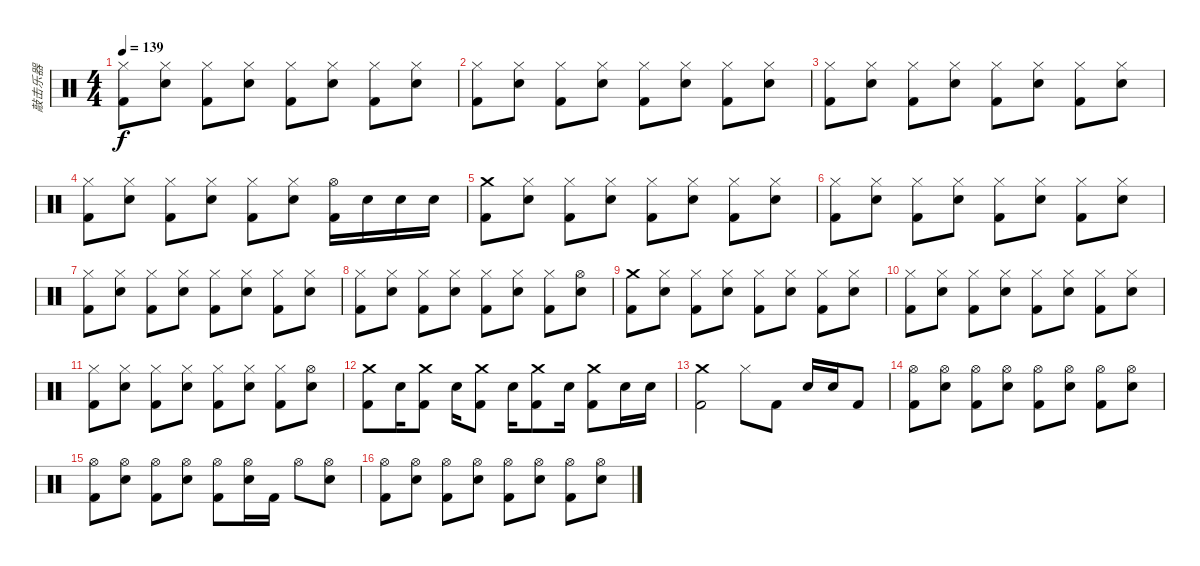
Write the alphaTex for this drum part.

\track ("敲击乐器" "敲击乐器") {instrument percussion}
\staff {score}
\articulation defaults
\ts (4 4)
\tempo 139
\clef neutral
\ks c
("Hi-Hat (closed)" "Kick (hit) 2").8{dy f} ("Hi-Hat (closed)" "Electric Snare (hit)").8 ("Hi-Hat (closed)" "Kick (hit) 2").8 ("Hi-Hat (closed)" "Electric Snare (hit)").8 ("Hi-Hat (closed)" "Kick (hit) 2").8 ("Hi-Hat (closed)" "Electric Snare (hit)").8 ("Hi-Hat (closed)" "Kick (hit) 2").8 ("Hi-Hat (closed)" "Electric Snare (hit)").8 |
("Hi-Hat (closed)" "Kick (hit) 2").8 ("Hi-Hat (closed)" "Electric Snare (hit)").8 ("Hi-Hat (closed)" "Kick (hit) 2").8 ("Hi-Hat (closed)" "Electric Snare (hit)").8 ("Hi-Hat (closed)" "Kick (hit) 2").8 ("Hi-Hat (closed)" "Electric Snare (hit)").8 ("Hi-Hat (closed)" "Kick (hit) 2").8 ("Hi-Hat (closed)" "Electric Snare (hit)").8 |
("Hi-Hat (closed)" "Kick (hit) 2").8 ("Hi-Hat (closed)" "Electric Snare (hit)").8 ("Hi-Hat (closed)" "Kick (hit) 2").8 ("Hi-Hat (closed)" "Electric Snare (hit)").8 ("Hi-Hat (closed)" "Kick (hit) 2").8 ("Hi-Hat (closed)" "Electric Snare (hit)").8 ("Hi-Hat (closed)" "Kick (hit) 2").8 ("Hi-Hat (closed)" "Electric Snare (hit)").8 |
("Hi-Hat (closed)" "Kick (hit) 2").8 ("Hi-Hat (closed)" "Electric Snare (hit)").8 ("Hi-Hat (closed)" "Kick (hit) 2").8 ("Hi-Hat (closed)" "Electric Snare (hit)").8 ("Hi-Hat (closed)" "Kick (hit) 2").8 ("Hi-Hat (closed)" "Electric Snare (hit)").8 ("Hi-Hat (open)" "Kick (hit) 2").16 "Electric Snare (hit)".16 "Electric Snare (hit)".16 "Electric Snare (hit)".16 |
("Crash medium (hit)" "Kick (hit) 2").8 ("Hi-Hat (closed)" "Electric Snare (hit)").8 ("Hi-Hat (closed)" "Kick (hit) 2").8 ("Hi-Hat (closed)" "Electric Snare (hit)").8 ("Hi-Hat (closed)" "Kick (hit) 2").8 ("Hi-Hat (closed)" "Electric Snare (hit)").8 ("Hi-Hat (closed)" "Kick (hit) 2").8 ("Hi-Hat (closed)" "Electric Snare (hit)").8 |
("Hi-Hat (closed)" "Kick (hit) 2").8 ("Hi-Hat (closed)" "Electric Snare (hit)").8 ("Hi-Hat (closed)" "Kick (hit) 2").8 ("Hi-Hat (closed)" "Electric Snare (hit)").8 ("Hi-Hat (closed)" "Kick (hit) 2").8 ("Hi-Hat (closed)" "Electric Snare (hit)").8 ("Hi-Hat (closed)" "Kick (hit) 2").8 ("Hi-Hat (closed)" "Electric Snare (hit)").8 |
("Hi-Hat (closed)" "Kick (hit) 2").8 ("Hi-Hat (closed)" "Electric Snare (hit)").8 ("Hi-Hat (closed)" "Kick (hit) 2").8 ("Hi-Hat (closed)" "Electric Snare (hit)").8 ("Hi-Hat (closed)" "Kick (hit) 2").8 ("Hi-Hat (closed)" "Electric Snare (hit)").8 ("Hi-Hat (closed)" "Kick (hit) 2").8 ("Hi-Hat (closed)" "Electric Snare (hit)").8 |
("Hi-Hat (closed)" "Kick (hit) 2").8 ("Hi-Hat (closed)" "Electric Snare (hit)").8 ("Hi-Hat (closed)" "Kick (hit) 2").8 ("Hi-Hat (closed)" "Electric Snare (hit)").8 ("Hi-Hat (closed)" "Kick (hit) 2").8 ("Hi-Hat (closed)" "Electric Snare (hit)").8 ("Hi-Hat (closed)" "Kick (hit) 2").8 ("Hi-Hat (open)" "Electric Snare (hit)").8 |
("Crash medium (hit)" "Kick (hit) 2").8 ("Hi-Hat (closed)" "Electric Snare (hit)").8 ("Hi-Hat (closed)" "Kick (hit) 2").8 ("Hi-Hat (closed)" "Electric Snare (hit)").8 ("Hi-Hat (closed)" "Kick (hit) 2").8 ("Hi-Hat (closed)" "Electric Snare (hit)").8 ("Hi-Hat (closed)" "Kick (hit) 2").8 ("Hi-Hat (closed)" "Electric Snare (hit)").8 |
("Hi-Hat (closed)" "Kick (hit) 2").8 ("Hi-Hat (closed)" "Electric Snare (hit)").8 ("Hi-Hat (closed)" "Kick (hit) 2").8 ("Hi-Hat (closed)" "Electric Snare (hit)").8 ("Hi-Hat (closed)" "Kick (hit) 2").8 ("Hi-Hat (closed)" "Electric Snare (hit)").8 ("Hi-Hat (closed)" "Kick (hit) 2").8 ("Hi-Hat (closed)" "Electric Snare (hit)").8 |
("Hi-Hat (closed)" "Kick (hit) 2").8 ("Hi-Hat (closed)" "Electric Snare (hit)").8 ("Hi-Hat (closed)" "Kick (hit) 2").8 ("Hi-Hat (closed)" "Electric Snare (hit)").8 ("Hi-Hat (closed)" "Kick (hit) 2").8 ("Hi-Hat (closed)" "Electric Snare (hit)").8 ("Hi-Hat (closed)" "Kick (hit) 2").8 ("Hi-Hat (open)" "Electric Snare (hit)").8 |
("Crash medium (hit)" "Kick (hit) 2").8 "Electric Snare (hit)".16 ("Crash medium (hit)" "Kick (hit) 2").8 "Electric Snare (hit)".16 ("Crash medium (hit)" "Kick (hit) 2").8 "Electric Snare (hit)".16 ("Crash medium (hit)" "Kick (hit) 2").8 "Electric Snare (hit)".16 ("Crash medium (hit)" "Kick (hit) 2").8 "Electric Snare (hit)".16 "Electric Snare (hit)".16 |
("Crash medium (hit)" "Kick (hit) 2").2 "Hi-Hat (closed)".8 "Kick (hit) 2".8 "Electric Snare (hit)".16 "Electric Snare (hit)".16 "Kick (hit) 2".8 |
("Hi-Hat (open)" "Kick (hit) 2").8 ("Hi-Hat (open)" "Electric Snare (hit)").8 ("Hi-Hat (open)" "Kick (hit) 2").8 ("Hi-Hat (open)" "Electric Snare (hit)").8 ("Hi-Hat (open)" "Kick (hit) 2").8 ("Hi-Hat (open)" "Electric Snare (hit)").8 ("Hi-Hat (open)" "Kick (hit) 2").8 ("Hi-Hat (open)" "Electric Snare (hit)").8 |
("Hi-Hat (open)" "Kick (hit) 2").8 ("Hi-Hat (open)" "Electric Snare (hit)").8 ("Hi-Hat (open)" "Kick (hit) 2").8 ("Hi-Hat (open)" "Electric Snare (hit)").8 ("Hi-Hat (open)" "Kick (hit) 2").8 ("Hi-Hat (open)" "Electric Snare (hit)").16 "Kick (hit) 2".16 "Hi-Hat (open)".8 ("Hi-Hat (open)" "Electric Snare (hit)").8 |
("Hi-Hat (open)" "Kick (hit) 2").8 ("Hi-Hat (open)" "Electric Snare (hit)").8 ("Hi-Hat (open)" "Kick (hit) 2").8 ("Hi-Hat (open)" "Electric Snare (hit)").8 ("Hi-Hat (open)" "Kick (hit) 2").8 ("Hi-Hat (open)" "Electric Snare (hit)").8 ("Hi-Hat (open)" "Kick (hit) 2").8 ("Hi-Hat (open)" "Electric Snare (hit)").8
